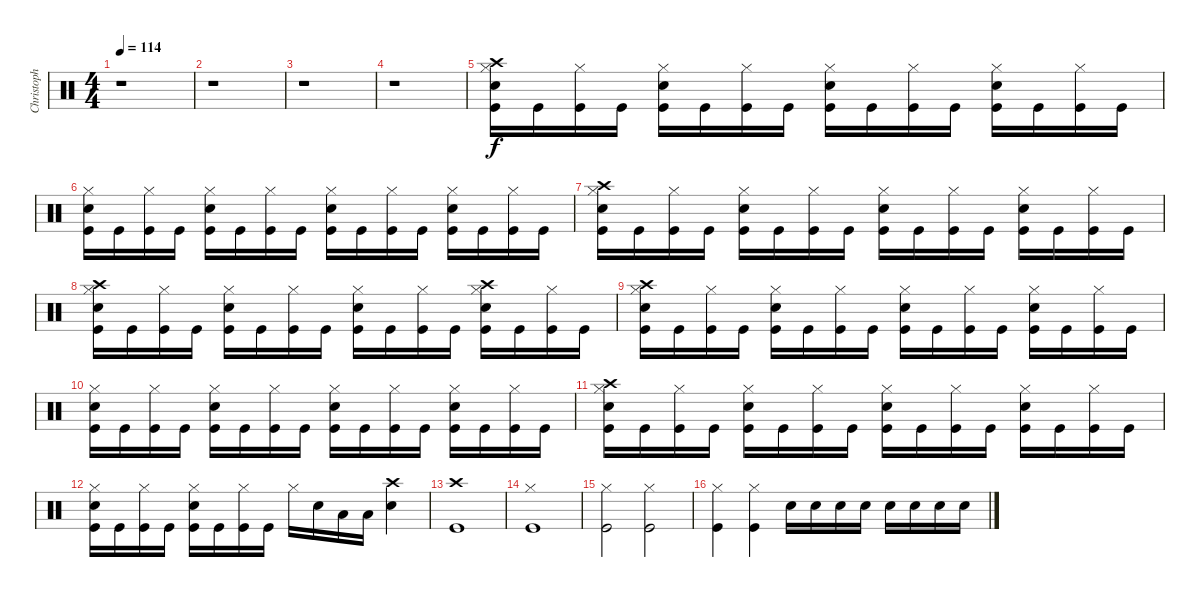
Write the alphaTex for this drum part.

\track ("Christoph - Drums" "Christoph ") {instrument percussion}
\staff {score}
\articulation defaults
\ts (4 4)
\tempo 114
\clef neutral
\ks c
r.1{dy f} |
r.1 |
r.1 |
r.1 |
("Crash high (hit)" "Hi-Hat (closed)" "Snare (hit) 2" "Kick (hit)").16 "Kick (hit)".16 ("Hi-Hat (closed)" "Kick (hit)").16 "Kick (hit)".16 ("Hi-Hat (closed)" "Snare (hit) 2" "Kick (hit)").16 "Kick (hit)".16 ("Hi-Hat (closed)" "Kick (hit)").16 "Kick (hit)".16 ("Hi-Hat (closed)" "Snare (hit) 2" "Kick (hit)").16 "Kick (hit)".16 ("Hi-Hat (closed)" "Kick (hit)").16 "Kick (hit)".16 ("Hi-Hat (closed)" "Snare (hit) 2" "Kick (hit)").16 "Kick (hit)".16 ("Hi-Hat (closed)" "Kick (hit)").16 "Kick (hit)".16 |
("Hi-Hat (closed)" "Snare (hit) 2" "Kick (hit)").16 "Kick (hit)".16 ("Hi-Hat (closed)" "Kick (hit)").16 "Kick (hit)".16 ("Hi-Hat (closed)" "Snare (hit) 2" "Kick (hit)").16 "Kick (hit)".16 ("Hi-Hat (closed)" "Kick (hit)").16 "Kick (hit)".16 ("Hi-Hat (closed)" "Snare (hit) 2" "Kick (hit)").16 "Kick (hit)".16 ("Hi-Hat (closed)" "Kick (hit)").16 "Kick (hit)".16 ("Hi-Hat (closed)" "Snare (hit) 2" "Kick (hit)").16 "Kick (hit)".16 ("Hi-Hat (closed)" "Kick (hit)").16 "Kick (hit)".16 |
("Crash high (hit)" "Hi-Hat (closed)" "Snare (hit) 2" "Kick (hit)").16 "Kick (hit)".16 ("Hi-Hat (closed)" "Kick (hit)").16 "Kick (hit)".16 ("Hi-Hat (closed)" "Snare (hit) 2" "Kick (hit)").16 "Kick (hit)".16 ("Hi-Hat (closed)" "Kick (hit)").16 "Kick (hit)".16 ("Hi-Hat (closed)" "Snare (hit) 2" "Kick (hit)").16 "Kick (hit)".16 ("Hi-Hat (closed)" "Kick (hit)").16 "Kick (hit)".16 ("Hi-Hat (closed)" "Snare (hit) 2" "Kick (hit)").16 "Kick (hit)".16 ("Hi-Hat (closed)" "Kick (hit)").16 "Kick (hit)".16 |
("Crash high (hit)" "Hi-Hat (closed)" "Snare (hit) 2" "Kick (hit)").16 "Kick (hit)".16 ("Hi-Hat (closed)" "Kick (hit)").16 "Kick (hit)".16 ("Hi-Hat (closed)" "Snare (hit) 2" "Kick (hit)").16 "Kick (hit)".16 ("Hi-Hat (closed)" "Kick (hit)").16 "Kick (hit)".16 ("Hi-Hat (closed)" "Snare (hit) 2" "Kick (hit)").16 "Kick (hit)".16 ("Hi-Hat (closed)" "Kick (hit)").16 "Kick (hit)".16 ("Crash high (hit)" "Hi-Hat (closed)" "Snare (hit) 2" "Kick (hit)").16 "Kick (hit)".16 ("Hi-Hat (closed)" "Kick (hit)").16 "Kick (hit)".16 |
("Crash high (hit)" "Hi-Hat (closed)" "Snare (hit) 2" "Kick (hit)").16 "Kick (hit)".16 ("Hi-Hat (closed)" "Kick (hit)").16 "Kick (hit)".16 ("Hi-Hat (closed)" "Snare (hit) 2" "Kick (hit)").16 "Kick (hit)".16 ("Hi-Hat (closed)" "Kick (hit)").16 "Kick (hit)".16 ("Hi-Hat (closed)" "Snare (hit) 2" "Kick (hit)").16 "Kick (hit)".16 ("Hi-Hat (closed)" "Kick (hit)").16 "Kick (hit)".16 ("Hi-Hat (closed)" "Snare (hit) 2" "Kick (hit)").16 "Kick (hit)".16 ("Hi-Hat (closed)" "Kick (hit)").16 "Kick (hit)".16 |
("Hi-Hat (closed)" "Snare (hit) 2" "Kick (hit)").16 "Kick (hit)".16 ("Hi-Hat (closed)" "Kick (hit)").16 "Kick (hit)".16 ("Hi-Hat (closed)" "Snare (hit) 2" "Kick (hit)").16 "Kick (hit)".16 ("Hi-Hat (closed)" "Kick (hit)").16 "Kick (hit)".16 ("Hi-Hat (closed)" "Snare (hit) 2" "Kick (hit)").16 "Kick (hit)".16 ("Hi-Hat (closed)" "Kick (hit)").16 "Kick (hit)".16 ("Hi-Hat (closed)" "Snare (hit) 2" "Kick (hit)").16 "Kick (hit)".16 ("Hi-Hat (closed)" "Kick (hit)").16 "Kick (hit)".16 |
("Crash high (hit)" "Hi-Hat (closed)" "Snare (hit) 2" "Kick (hit)").16 "Kick (hit)".16 ("Hi-Hat (closed)" "Kick (hit)").16 "Kick (hit)".16 ("Hi-Hat (closed)" "Snare (hit) 2" "Kick (hit)").16 "Kick (hit)".16 ("Hi-Hat (closed)" "Kick (hit)").16 "Kick (hit)".16 ("Hi-Hat (closed)" "Snare (hit) 2" "Kick (hit)").16 "Kick (hit)".16 ("Hi-Hat (closed)" "Kick (hit)").16 "Kick (hit)".16 ("Hi-Hat (closed)" "Snare (hit) 2" "Kick (hit)").16 "Kick (hit)".16 ("Hi-Hat (closed)" "Kick (hit)").16 "Kick (hit)".16 |
("Hi-Hat (closed)" "Snare (hit) 2" "Kick (hit)").16 "Kick (hit)".16 ("Hi-Hat (closed)" "Kick (hit)").16 "Kick (hit)".16 ("Hi-Hat (closed)" "Snare (hit) 2" "Kick (hit)").16 "Kick (hit)".16 ("Hi-Hat (closed)" "Kick (hit)").16 "Kick (hit)".16 "Hi-Hat (closed)".16 "Snare (hit) 2".16 "Low Tom (hit)".16 "Low Tom (hit)".16 ("Crash high (hit)" "Snare (hit) 2").4 |
("Crash high (hit)" "Kick (hit)").1 |
("Hi-Hat (closed)" "Kick (hit)").1 |
("Hi-Hat (closed)" "Kick (hit)").2 ("Hi-Hat (closed)" "Kick (hit)").2 |
("Hi-Hat (closed)" "Kick (hit)").4 ("Hi-Hat (closed)" "Kick (hit)").4 "Snare (hit) 2".16 "Snare (hit) 2".16 "Snare (hit) 2".16 "Snare (hit) 2".16 "Snare (hit) 2".16 "Snare (hit) 2".16 "Snare (hit) 2".16 "Snare (hit) 2".16
